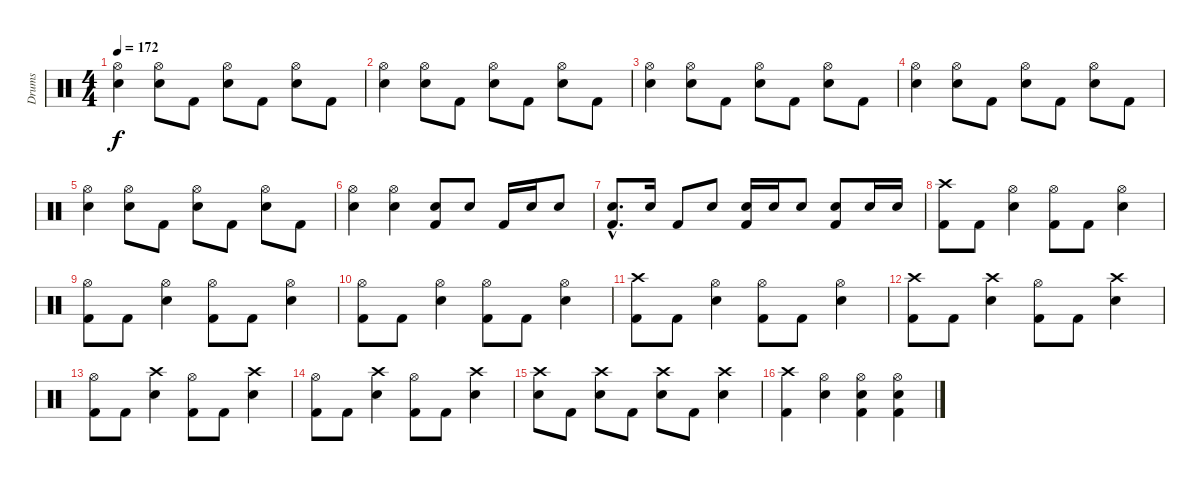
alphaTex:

\track ("Drums" "Drums") {instrument percussion}
\staff {score}
\articulation defaults
\ts (4 4)
\tempo 172
\clef neutral
\ks c
("Hi-Hat (open)" "Electric Snare (hit)").4{dy f} ("Hi-Hat (open)" "Electric Snare (hit)").8 "Kick (hit) 2".8 ("Hi-Hat (open)" "Electric Snare (hit)").8 "Kick (hit) 2".8 ("Hi-Hat (open)" "Electric Snare (hit)").8 "Kick (hit) 2".8 |
("Hi-Hat (open)" "Electric Snare (hit)").4 ("Hi-Hat (open)" "Electric Snare (hit)").8 "Kick (hit) 2".8 ("Hi-Hat (open)" "Electric Snare (hit)").8 "Kick (hit) 2".8 ("Hi-Hat (open)" "Electric Snare (hit)").8 "Kick (hit) 2".8 |
("Hi-Hat (open)" "Electric Snare (hit)").4 ("Hi-Hat (open)" "Electric Snare (hit)").8 "Kick (hit) 2".8 ("Hi-Hat (open)" "Electric Snare (hit)").8 "Kick (hit) 2".8 ("Hi-Hat (open)" "Electric Snare (hit)").8 "Kick (hit) 2".8 |
("Hi-Hat (open)" "Electric Snare (hit)").4 ("Hi-Hat (open)" "Electric Snare (hit)").8 "Kick (hit) 2".8 ("Hi-Hat (open)" "Electric Snare (hit)").8 "Kick (hit) 2".8 ("Hi-Hat (open)" "Electric Snare (hit)").8 "Kick (hit) 2".8 |
("Hi-Hat (open)" "Electric Snare (hit)").4 ("Hi-Hat (open)" "Electric Snare (hit)").8 "Kick (hit) 2".8 ("Hi-Hat (open)" "Electric Snare (hit)").8 "Kick (hit) 2".8 ("Hi-Hat (open)" "Electric Snare (hit)").8 "Kick (hit) 2".8 |
("Hi-Hat (open)" "Electric Snare (hit)").4 ("Hi-Hat (open)" "Electric Snare (hit)").4 ("Electric Snare (hit)" "Kick (hit) 2").8 "Electric Snare (hit)".8 "Kick (hit) 2".16 "Electric Snare (hit)".16 "Electric Snare (hit)".8 |
("Electric Snare (hit)"{hac} "Kick (hit) 2"{hac}).8{d} "Electric Snare (hit)".16 "Kick (hit) 2".8 "Electric Snare (hit)".8 ("Electric Snare (hit)" "Kick (hit) 2").16 "Electric Snare (hit)".16 "Electric Snare (hit)".8 ("Electric Snare (hit)" "Kick (hit) 2").8 "Electric Snare (hit)".16 "Electric Snare (hit)".16 |
("Crash high (hit)" "Kick (hit) 2").8 "Kick (hit) 2".8 ("Hi-Hat (open)" "Electric Snare (hit)").4 ("Hi-Hat (open)" "Kick (hit) 2").8 "Kick (hit) 2".8 ("Hi-Hat (open)" "Electric Snare (hit)").4 |
("Hi-Hat (open)" "Kick (hit) 2").8 "Kick (hit) 2".8 ("Hi-Hat (open)" "Electric Snare (hit)").4 ("Hi-Hat (open)" "Kick (hit) 2").8 "Kick (hit) 2".8 ("Hi-Hat (open)" "Electric Snare (hit)").4 |
("Hi-Hat (open)" "Kick (hit) 2").8 "Kick (hit) 2".8 ("Hi-Hat (open)" "Electric Snare (hit)").4 ("Hi-Hat (open)" "Kick (hit) 2").8 "Kick (hit) 2".8 ("Hi-Hat (open)" "Electric Snare (hit)").4 |
("Crash high (hit)" "Kick (hit) 2").8 "Kick (hit) 2".8 ("Hi-Hat (open)" "Electric Snare (hit)").4 ("Hi-Hat (open)" "Kick (hit) 2").8 "Kick (hit) 2".8 ("Hi-Hat (open)" "Electric Snare (hit)").4 |
("Crash high (hit)" "Kick (hit) 2").8 "Kick (hit) 2".8 ("Crash high (hit)" "Electric Snare (hit)").4 ("Hi-Hat (open)" "Kick (hit) 2").8 "Kick (hit) 2".8 ("Crash high (hit)" "Electric Snare (hit)").4 |
("Hi-Hat (open)" "Kick (hit) 2").8 "Kick (hit) 2".8 ("Crash high (hit)" "Electric Snare (hit)").4 ("Hi-Hat (open)" "Kick (hit) 2").8 "Kick (hit) 2".8 ("Crash high (hit)" "Electric Snare (hit)").4 |
("Hi-Hat (open)" "Kick (hit) 2").8 "Kick (hit) 2".8 ("Crash high (hit)" "Electric Snare (hit)").4 ("Hi-Hat (open)" "Kick (hit) 2").8 "Kick (hit) 2".8 ("Crash high (hit)" "Electric Snare (hit)").4 |
("Crash high (hit)" "Electric Snare (hit)").8 "Kick (hit) 2".8 ("Crash high (hit)" "Electric Snare (hit)").8 "Kick (hit) 2".8 ("Crash high (hit)" "Electric Snare (hit)").8 "Kick (hit) 2".8 ("Crash high (hit)" "Electric Snare (hit)").4 |
("Crash high (hit)" "Kick (hit) 2").4 ("Hi-Hat (open)" "Electric Snare (hit)").4 ("Hi-Hat (open)" "Electric Snare (hit)" "Kick (hit) 2").4 ("Hi-Hat (open)" "Electric Snare (hit)" "Kick (hit) 2").4
